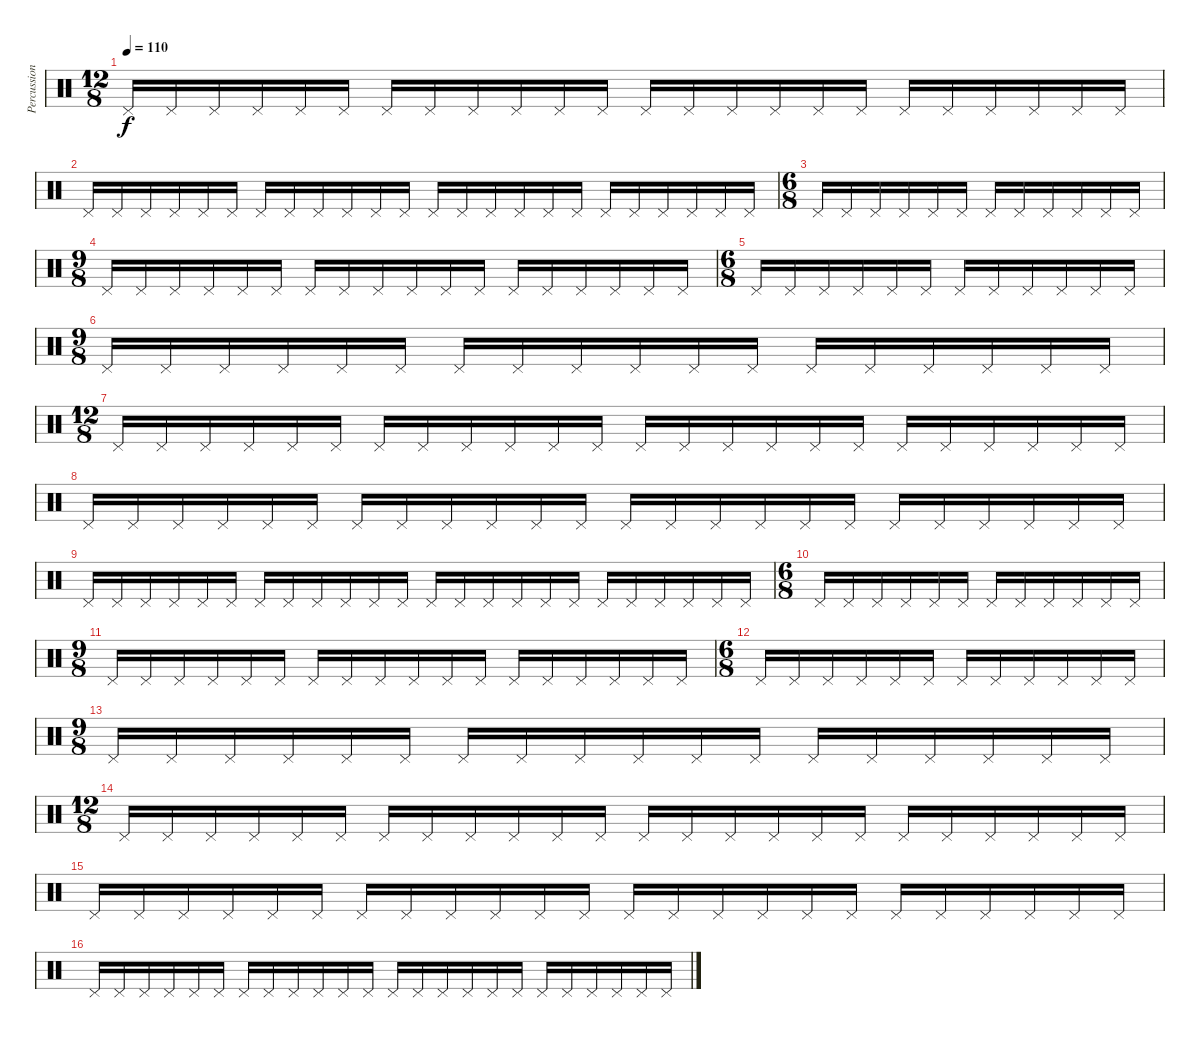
\track ("Percussion" "Percussion") {instrument percussion}
\staff {score}
\articulation defaults
\ts (12 8)
\tempo 110
\clef neutral
\ks c "Pedal Hi-Hat (hit)".16{dy f} "Pedal Hi-Hat (hit)".16 "Pedal Hi-Hat (hit)".16 "Pedal Hi-Hat (hit)".16 "Pedal Hi-Hat (hit)".16 "Pedal Hi-Hat (hit)".16 "Pedal Hi-Hat (hit)".16 "Pedal Hi-Hat (hit)".16 "Pedal Hi-Hat (hit)".16 "Pedal Hi-Hat (hit)".16 "Pedal Hi-Hat (hit)".16 "Pedal Hi-Hat (hit)".16 "Pedal Hi-Hat (hit)".16 "Pedal Hi-Hat (hit)".16 "Pedal Hi-Hat (hit)".16 "Pedal Hi-Hat (hit)".16 "Pedal Hi-Hat (hit)".16 "Pedal Hi-Hat (hit)".16 "Pedal Hi-Hat (hit)".16 "Pedal Hi-Hat (hit)".16 "Pedal Hi-Hat (hit)".16 "Pedal Hi-Hat (hit)".16 "Pedal Hi-Hat (hit)".16 "Pedal Hi-Hat (hit)".16
|
"Pedal Hi-Hat (hit)".16 "Pedal Hi-Hat (hit)".16 "Pedal Hi-Hat (hit)".16 "Pedal Hi-Hat (hit)".16 "Pedal Hi-Hat (hit)".16 "Pedal Hi-Hat (hit)".16 "Pedal Hi-Hat (hit)".16 "Pedal Hi-Hat (hit)".16 "Pedal Hi-Hat (hit)".16 "Pedal Hi-Hat (hit)".16 "Pedal Hi-Hat (hit)".16 "Pedal Hi-Hat (hit)".16 "Pedal Hi-Hat (hit)".16 "Pedal Hi-Hat (hit)".16 "Pedal Hi-Hat (hit)".16 "Pedal Hi-Hat (hit)".16 "Pedal Hi-Hat (hit)".16 "Pedal Hi-Hat (hit)".16 "Pedal Hi-Hat (hit)".16 "Pedal Hi-Hat (hit)".16 "Pedal Hi-Hat (hit)".16 "Pedal Hi-Hat (hit)".16 "Pedal Hi-Hat (hit)".16 "Pedal Hi-Hat (hit)".16 |
\ts (6 8)
"Pedal Hi-Hat (hit)".16 "Pedal Hi-Hat (hit)".16 "Pedal Hi-Hat (hit)".16 "Pedal Hi-Hat (hit)".16 "Pedal Hi-Hat (hit)".16 "Pedal Hi-Hat (hit)".16 "Pedal Hi-Hat (hit)".16 "Pedal Hi-Hat (hit)".16 "Pedal Hi-Hat (hit)".16 "Pedal Hi-Hat (hit)".16 "Pedal Hi-Hat (hit)".16 "Pedal Hi-Hat (hit)".16 |
\ts (9 8)
"Pedal Hi-Hat (hit)".16 "Pedal Hi-Hat (hit)".16 "Pedal Hi-Hat (hit)".16 "Pedal Hi-Hat (hit)".16 "Pedal Hi-Hat (hit)".16 "Pedal Hi-Hat (hit)".16 "Pedal Hi-Hat (hit)".16 "Pedal Hi-Hat (hit)".16 "Pedal Hi-Hat (hit)".16 "Pedal Hi-Hat (hit)".16 "Pedal Hi-Hat (hit)".16 "Pedal Hi-Hat (hit)".16 "Pedal Hi-Hat (hit)".16 "Pedal Hi-Hat (hit)".16 "Pedal Hi-Hat (hit)".16 "Pedal Hi-Hat (hit)".16 "Pedal Hi-Hat (hit)".16 "Pedal Hi-Hat (hit)".16 |
\ts (6 8)
"Pedal Hi-Hat (hit)".16 "Pedal Hi-Hat (hit)".16 "Pedal Hi-Hat (hit)".16 "Pedal Hi-Hat (hit)".16 "Pedal Hi-Hat (hit)".16 "Pedal Hi-Hat (hit)".16 "Pedal Hi-Hat (hit)".16 "Pedal Hi-Hat (hit)".16 "Pedal Hi-Hat (hit)".16 "Pedal Hi-Hat (hit)".16 "Pedal Hi-Hat (hit)".16 "Pedal Hi-Hat (hit)".16 |
\ts (9 8)
"Pedal Hi-Hat (hit)".16 "Pedal Hi-Hat (hit)".16 "Pedal Hi-Hat (hit)".16 "Pedal Hi-Hat (hit)".16 "Pedal Hi-Hat (hit)".16 "Pedal Hi-Hat (hit)".16 "Pedal Hi-Hat (hit)".16 "Pedal Hi-Hat (hit)".16 "Pedal Hi-Hat (hit)".16 "Pedal Hi-Hat (hit)".16 "Pedal Hi-Hat (hit)".16 "Pedal Hi-Hat (hit)".16 "Pedal Hi-Hat (hit)".16 "Pedal Hi-Hat (hit)".16 "Pedal Hi-Hat (hit)".16 "Pedal Hi-Hat (hit)".16 "Pedal Hi-Hat (hit)".16 "Pedal Hi-Hat (hit)".16 |
\ts (12 8)
"Pedal Hi-Hat (hit)".16 "Pedal Hi-Hat (hit)".16 "Pedal Hi-Hat (hit)".16 "Pedal Hi-Hat (hit)".16 "Pedal Hi-Hat (hit)".16 "Pedal Hi-Hat (hit)".16 "Pedal Hi-Hat (hit)".16 "Pedal Hi-Hat (hit)".16 "Pedal Hi-Hat (hit)".16 "Pedal Hi-Hat (hit)".16 "Pedal Hi-Hat (hit)".16 "Pedal Hi-Hat (hit)".16 "Pedal Hi-Hat (hit)".16 "Pedal Hi-Hat (hit)".16 "Pedal Hi-Hat (hit)".16 "Pedal Hi-Hat (hit)".16 "Pedal Hi-Hat (hit)".16 "Pedal Hi-Hat (hit)".16 "Pedal Hi-Hat (hit)".16 "Pedal Hi-Hat (hit)".16 "Pedal Hi-Hat (hit)".16 "Pedal Hi-Hat (hit)".16 "Pedal Hi-Hat (hit)".16 "Pedal Hi-Hat (hit)".16 |
"Pedal Hi-Hat (hit)".16 "Pedal Hi-Hat (hit)".16 "Pedal Hi-Hat (hit)".16 "Pedal Hi-Hat (hit)".16 "Pedal Hi-Hat (hit)".16 "Pedal Hi-Hat (hit)".16 "Pedal Hi-Hat (hit)".16 "Pedal Hi-Hat (hit)".16 "Pedal Hi-Hat (hit)".16 "Pedal Hi-Hat (hit)".16 "Pedal Hi-Hat (hit)".16 "Pedal Hi-Hat (hit)".16 "Pedal Hi-Hat (hit)".16 "Pedal Hi-Hat (hit)".16 "Pedal Hi-Hat (hit)".16 "Pedal Hi-Hat (hit)".16 "Pedal Hi-Hat (hit)".16 "Pedal Hi-Hat (hit)".16 "Pedal Hi-Hat (hit)".16 "Pedal Hi-Hat (hit)".16 "Pedal Hi-Hat (hit)".16 "Pedal Hi-Hat (hit)".16 "Pedal Hi-Hat (hit)".16 "Pedal Hi-Hat (hit)".16 |
"Pedal Hi-Hat (hit)".16 "Pedal Hi-Hat (hit)".16 "Pedal Hi-Hat (hit)".16 "Pedal Hi-Hat (hit)".16 "Pedal Hi-Hat (hit)".16 "Pedal Hi-Hat (hit)".16 "Pedal Hi-Hat (hit)".16 "Pedal Hi-Hat (hit)".16 "Pedal Hi-Hat (hit)".16 "Pedal Hi-Hat (hit)".16 "Pedal Hi-Hat (hit)".16 "Pedal Hi-Hat (hit)".16 "Pedal Hi-Hat (hit)".16 "Pedal Hi-Hat (hit)".16 "Pedal Hi-Hat (hit)".16 "Pedal Hi-Hat (hit)".16 "Pedal Hi-Hat (hit)".16 "Pedal Hi-Hat (hit)".16 "Pedal Hi-Hat (hit)".16 "Pedal Hi-Hat (hit)".16 "Pedal Hi-Hat (hit)".16 "Pedal Hi-Hat (hit)".16 "Pedal Hi-Hat (hit)".16 "Pedal Hi-Hat (hit)".16 |
\ts (6 8)
"Pedal Hi-Hat (hit)".16 "Pedal Hi-Hat (hit)".16 "Pedal Hi-Hat (hit)".16 "Pedal Hi-Hat (hit)".16 "Pedal Hi-Hat (hit)".16 "Pedal Hi-Hat (hit)".16 "Pedal Hi-Hat (hit)".16 "Pedal Hi-Hat (hit)".16 "Pedal Hi-Hat (hit)".16 "Pedal Hi-Hat (hit)".16 "Pedal Hi-Hat (hit)".16 "Pedal Hi-Hat (hit)".16 |
\ts (9 8)
"Pedal Hi-Hat (hit)".16 "Pedal Hi-Hat (hit)".16 "Pedal Hi-Hat (hit)".16 "Pedal Hi-Hat (hit)".16 "Pedal Hi-Hat (hit)".16 "Pedal Hi-Hat (hit)".16 "Pedal Hi-Hat (hit)".16 "Pedal Hi-Hat (hit)".16 "Pedal Hi-Hat (hit)".16 "Pedal Hi-Hat (hit)".16 "Pedal Hi-Hat (hit)".16 "Pedal Hi-Hat (hit)".16 "Pedal Hi-Hat (hit)".16 "Pedal Hi-Hat (hit)".16 "Pedal Hi-Hat (hit)".16 "Pedal Hi-Hat (hit)".16 "Pedal Hi-Hat (hit)".16 "Pedal Hi-Hat (hit)".16 |
\ts (6 8)
"Pedal Hi-Hat (hit)".16 "Pedal Hi-Hat (hit)".16 "Pedal Hi-Hat (hit)".16 "Pedal Hi-Hat (hit)".16 "Pedal Hi-Hat (hit)".16 "Pedal Hi-Hat (hit)".16 "Pedal Hi-Hat (hit)".16 "Pedal Hi-Hat (hit)".16 "Pedal Hi-Hat (hit)".16 "Pedal Hi-Hat (hit)".16 "Pedal Hi-Hat (hit)".16 "Pedal Hi-Hat (hit)".16 |
\ts (9 8)
"Pedal Hi-Hat (hit)".16 "Pedal Hi-Hat (hit)".16 "Pedal Hi-Hat (hit)".16 "Pedal Hi-Hat (hit)".16 "Pedal Hi-Hat (hit)".16 "Pedal Hi-Hat (hit)".16 "Pedal Hi-Hat (hit)".16 "Pedal Hi-Hat (hit)".16 "Pedal Hi-Hat (hit)".16 "Pedal Hi-Hat (hit)".16 "Pedal Hi-Hat (hit)".16 "Pedal Hi-Hat (hit)".16 "Pedal Hi-Hat (hit)".16 "Pedal Hi-Hat (hit)".16 "Pedal Hi-Hat (hit)".16 "Pedal Hi-Hat (hit)".16 "Pedal Hi-Hat (hit)".16 "Pedal Hi-Hat (hit)".16 |
\ts (12 8)
"Pedal Hi-Hat (hit)".16 "Pedal Hi-Hat (hit)".16 "Pedal Hi-Hat (hit)".16 "Pedal Hi-Hat (hit)".16 "Pedal Hi-Hat (hit)".16 "Pedal Hi-Hat (hit)".16 "Pedal Hi-Hat (hit)".16 "Pedal Hi-Hat (hit)".16 "Pedal Hi-Hat (hit)".16 "Pedal Hi-Hat (hit)".16 "Pedal Hi-Hat (hit)".16 "Pedal Hi-Hat (hit)".16 "Pedal Hi-Hat (hit)".16 "Pedal Hi-Hat (hit)".16 "Pedal Hi-Hat (hit)".16 "Pedal Hi-Hat (hit)".16 "Pedal Hi-Hat (hit)".16 "Pedal Hi-Hat (hit)".16 "Pedal Hi-Hat (hit)".16 "Pedal Hi-Hat (hit)".16 "Pedal Hi-Hat (hit)".16 "Pedal Hi-Hat (hit)".16 "Pedal Hi-Hat (hit)".16 "Pedal Hi-Hat (hit)".16 |
"Pedal Hi-Hat (hit)".16 "Pedal Hi-Hat (hit)".16 "Pedal Hi-Hat (hit)".16 "Pedal Hi-Hat (hit)".16 "Pedal Hi-Hat (hit)".16 "Pedal Hi-Hat (hit)".16 "Pedal Hi-Hat (hit)".16 "Pedal Hi-Hat (hit)".16 "Pedal Hi-Hat (hit)".16 "Pedal Hi-Hat (hit)".16 "Pedal Hi-Hat (hit)".16 "Pedal Hi-Hat (hit)".16 "Pedal Hi-Hat (hit)".16 "Pedal Hi-Hat (hit)".16 "Pedal Hi-Hat (hit)".16 "Pedal Hi-Hat (hit)".16 "Pedal Hi-Hat (hit)".16 "Pedal Hi-Hat (hit)".16 "Pedal Hi-Hat (hit)".16 "Pedal Hi-Hat (hit)".16 "Pedal Hi-Hat (hit)".16 "Pedal Hi-Hat (hit)".16 "Pedal Hi-Hat (hit)".16 "Pedal Hi-Hat (hit)".16 |
"Pedal Hi-Hat (hit)".16 "Pedal Hi-Hat (hit)".16 "Pedal Hi-Hat (hit)".16 "Pedal Hi-Hat (hit)".16 "Pedal Hi-Hat (hit)".16 "Pedal Hi-Hat (hit)".16 "Pedal Hi-Hat (hit)".16 "Pedal Hi-Hat (hit)".16 "Pedal Hi-Hat (hit)".16 "Pedal Hi-Hat (hit)".16 "Pedal Hi-Hat (hit)".16 "Pedal Hi-Hat (hit)".16 "Pedal Hi-Hat (hit)".16 "Pedal Hi-Hat (hit)".16 "Pedal Hi-Hat (hit)".16 "Pedal Hi-Hat (hit)".16 "Pedal Hi-Hat (hit)".16 "Pedal Hi-Hat (hit)".16 "Pedal Hi-Hat (hit)".16 "Pedal Hi-Hat (hit)".16 "Pedal Hi-Hat (hit)".16 "Pedal Hi-Hat (hit)".16 "Pedal Hi-Hat (hit)".16 "Pedal Hi-Hat (hit)".16
